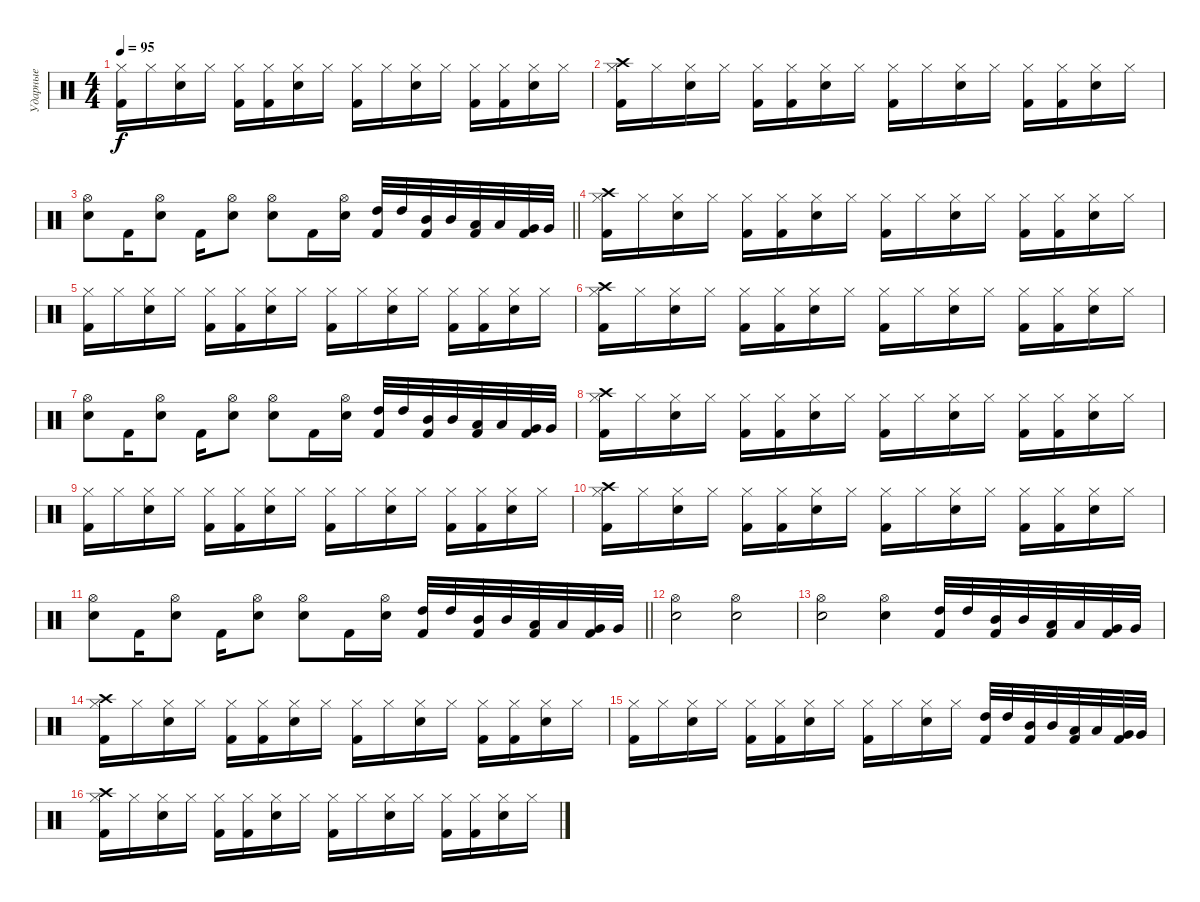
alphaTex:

\track ("Ударные" "Ударные") {instrument percussion}
\staff {score}
\articulation defaults
\ts (4 4)
\tempo 95
\clef neutral
\ks c
("Kick (hit) 2" "Hi-Hat (closed)").16{dy f} "Hi-Hat (closed)".16 ("Snare (hit) 2" "Hi-Hat (closed)").16 "Hi-Hat (closed)".16 ("Kick (hit) 2" "Hi-Hat (closed)").16 ("Kick (hit) 2" "Hi-Hat (closed)").16 ("Snare (hit) 2" "Hi-Hat (closed)").16 "Hi-Hat (closed)".16 ("Kick (hit) 2" "Hi-Hat (closed)").16 "Hi-Hat (closed)".16 ("Snare (hit) 2" "Hi-Hat (closed)").16 "Hi-Hat (closed)".16 ("Kick (hit) 2" "Hi-Hat (closed)").16 ("Kick (hit) 2" "Hi-Hat (closed)").16 ("Snare (hit) 2" "Hi-Hat (closed)").16 "Hi-Hat (closed)".16 |
("Crash high (hit)" "Kick (hit) 2" "Hi-Hat (closed)").16 "Hi-Hat (closed)".16 ("Snare (hit) 2" "Hi-Hat (closed)").16 "Hi-Hat (closed)".16 ("Kick (hit) 2" "Hi-Hat (closed)").16 ("Kick (hit) 2" "Hi-Hat (closed)").16 ("Snare (hit) 2" "Hi-Hat (closed)").16 "Hi-Hat (closed)".16 ("Kick (hit) 2" "Hi-Hat (closed)").16 "Hi-Hat (closed)".16 ("Snare (hit) 2" "Hi-Hat (closed)").16 "Hi-Hat (closed)".16 ("Kick (hit) 2" "Hi-Hat (closed)").16 ("Kick (hit) 2" "Hi-Hat (closed)").16 ("Snare (hit) 2" "Hi-Hat (closed)").16 "Hi-Hat (closed)".16 |
\barLineRight lightlight
("Hi-Hat (open)" "Snare (hit) 2").8 "Kick (hit) 2".16 ("Hi-Hat (open)" "Snare (hit) 2").8 "Kick (hit) 2".16 ("Hi-Hat (open)" "Snare (hit) 2").8 ("Hi-Hat (open)" "Snare (hit) 2").8 "Kick (hit) 2".16 ("Hi-Hat (open)" "Snare (hit) 2").16 ("Kick (hit) 2" "High Tom (hit)").32 "High Tom (hit)".32 ("Kick (hit) 2" "Mid Tom (hit)").32 "Mid Tom (hit)".32 ("Kick (hit) 2" "Low Tom (hit)").32 "Low Tom (hit)".32 ("Kick (hit) 2" "Very Low Tom (hit)").32 "Very Low Tom (hit)".32 |
("Crash high (hit)" "Kick (hit) 2" "Hi-Hat (closed)").16 "Hi-Hat (closed)".16 ("Snare (hit) 2" "Hi-Hat (closed)").16 "Hi-Hat (closed)".16 ("Kick (hit) 2" "Hi-Hat (closed)").16 ("Kick (hit) 2" "Hi-Hat (closed)").16 ("Snare (hit) 2" "Hi-Hat (closed)").16 "Hi-Hat (closed)".16 ("Kick (hit) 2" "Hi-Hat (closed)").16 "Hi-Hat (closed)".16 ("Snare (hit) 2" "Hi-Hat (closed)").16 "Hi-Hat (closed)".16 ("Kick (hit) 2" "Hi-Hat (closed)").16 ("Kick (hit) 2" "Hi-Hat (closed)").16 ("Snare (hit) 2" "Hi-Hat (closed)").16 "Hi-Hat (closed)".16 |
("Kick (hit) 2" "Hi-Hat (closed)").16 "Hi-Hat (closed)".16 ("Snare (hit) 2" "Hi-Hat (closed)").16 "Hi-Hat (closed)".16 ("Kick (hit) 2" "Hi-Hat (closed)").16 ("Kick (hit) 2" "Hi-Hat (closed)").16 ("Snare (hit) 2" "Hi-Hat (closed)").16 "Hi-Hat (closed)".16 ("Kick (hit) 2" "Hi-Hat (closed)").16 "Hi-Hat (closed)".16 ("Snare (hit) 2" "Hi-Hat (closed)").16 "Hi-Hat (closed)".16 ("Kick (hit) 2" "Hi-Hat (closed)").16 ("Kick (hit) 2" "Hi-Hat (closed)").16 ("Snare (hit) 2" "Hi-Hat (closed)").16 "Hi-Hat (closed)".16 |
("Crash high (hit)" "Kick (hit) 2" "Hi-Hat (closed)").16 "Hi-Hat (closed)".16 ("Snare (hit) 2" "Hi-Hat (closed)").16 "Hi-Hat (closed)".16 ("Kick (hit) 2" "Hi-Hat (closed)").16 ("Kick (hit) 2" "Hi-Hat (closed)").16 ("Snare (hit) 2" "Hi-Hat (closed)").16 "Hi-Hat (closed)".16 ("Kick (hit) 2" "Hi-Hat (closed)").16 "Hi-Hat (closed)".16 ("Snare (hit) 2" "Hi-Hat (closed)").16 "Hi-Hat (closed)".16 ("Kick (hit) 2" "Hi-Hat (closed)").16 ("Kick (hit) 2" "Hi-Hat (closed)").16 ("Snare (hit) 2" "Hi-Hat (closed)").16 "Hi-Hat (closed)".16 |
("Hi-Hat (open)" "Snare (hit) 2").8 "Kick (hit) 2".16 ("Hi-Hat (open)" "Snare (hit) 2").8 "Kick (hit) 2".16 ("Hi-Hat (open)" "Snare (hit) 2").8 ("Hi-Hat (open)" "Snare (hit) 2").8 "Kick (hit) 2".16 ("Hi-Hat (open)" "Snare (hit) 2").16 ("Kick (hit) 2" "High Tom (hit)").32 "High Tom (hit)".32 ("Kick (hit) 2" "Mid Tom (hit)").32 "Mid Tom (hit)".32 ("Kick (hit) 2" "Low Tom (hit)").32 "Low Tom (hit)".32 ("Kick (hit) 2" "Very Low Tom (hit)").32 "Very Low Tom (hit)".32 |
("Crash high (hit)" "Kick (hit) 2" "Hi-Hat (closed)").16 "Hi-Hat (closed)".16 ("Snare (hit) 2" "Hi-Hat (closed)").16 "Hi-Hat (closed)".16 ("Kick (hit) 2" "Hi-Hat (closed)").16 ("Kick (hit) 2" "Hi-Hat (closed)").16 ("Snare (hit) 2" "Hi-Hat (closed)").16 "Hi-Hat (closed)".16 ("Kick (hit) 2" "Hi-Hat (closed)").16 "Hi-Hat (closed)".16 ("Snare (hit) 2" "Hi-Hat (closed)").16 "Hi-Hat (closed)".16 ("Kick (hit) 2" "Hi-Hat (closed)").16 ("Kick (hit) 2" "Hi-Hat (closed)").16 ("Snare (hit) 2" "Hi-Hat (closed)").16 "Hi-Hat (closed)".16 |
("Kick (hit) 2" "Hi-Hat (closed)").16 "Hi-Hat (closed)".16 ("Snare (hit) 2" "Hi-Hat (closed)").16 "Hi-Hat (closed)".16 ("Kick (hit) 2" "Hi-Hat (closed)").16 ("Kick (hit) 2" "Hi-Hat (closed)").16 ("Snare (hit) 2" "Hi-Hat (closed)").16 "Hi-Hat (closed)".16 ("Kick (hit) 2" "Hi-Hat (closed)").16 "Hi-Hat (closed)".16 ("Snare (hit) 2" "Hi-Hat (closed)").16 "Hi-Hat (closed)".16 ("Kick (hit) 2" "Hi-Hat (closed)").16 ("Kick (hit) 2" "Hi-Hat (closed)").16 ("Snare (hit) 2" "Hi-Hat (closed)").16 "Hi-Hat (closed)".16 |
("Crash high (hit)" "Kick (hit) 2" "Hi-Hat (closed)").16 "Hi-Hat (closed)".16 ("Snare (hit) 2" "Hi-Hat (closed)").16 "Hi-Hat (closed)".16 ("Kick (hit) 2" "Hi-Hat (closed)").16 ("Kick (hit) 2" "Hi-Hat (closed)").16 ("Snare (hit) 2" "Hi-Hat (closed)").16 "Hi-Hat (closed)".16 ("Kick (hit) 2" "Hi-Hat (closed)").16 "Hi-Hat (closed)".16 ("Snare (hit) 2" "Hi-Hat (closed)").16 "Hi-Hat (closed)".16 ("Kick (hit) 2" "Hi-Hat (closed)").16 ("Kick (hit) 2" "Hi-Hat (closed)").16 ("Snare (hit) 2" "Hi-Hat (closed)").16 "Hi-Hat (closed)".16 |
\barLineRight lightlight
("Hi-Hat (open)" "Snare (hit) 2").8 "Kick (hit) 2".16 ("Hi-Hat (open)" "Snare (hit) 2").8 "Kick (hit) 2".16 ("Hi-Hat (open)" "Snare (hit) 2").8 ("Hi-Hat (open)" "Snare (hit) 2").8 "Kick (hit) 2".16 ("Hi-Hat (open)" "Snare (hit) 2").16 ("Kick (hit) 2" "High Tom (hit)").32 "High Tom (hit)".32 ("Kick (hit) 2" "Mid Tom (hit)").32 "Mid Tom (hit)".32 ("Kick (hit) 2" "Low Tom (hit)").32 "Low Tom (hit)".32 ("Kick (hit) 2" "Very Low Tom (hit)").32 "Very Low Tom (hit)".32 |
("Hi-Hat (open)" "Snare (hit) 2").2 ("Hi-Hat (open)" "Snare (hit) 2").2 |
("Hi-Hat (open)" "Snare (hit) 2").2 ("Hi-Hat (open)" "Snare (hit) 2").4 ("Kick (hit) 2" "High Tom (hit)").32 "High Tom (hit)".32 ("Kick (hit) 2" "Mid Tom (hit)").32 "Mid Tom (hit)".32 ("Kick (hit) 2" "Low Tom (hit)").32 "Low Tom (hit)".32 ("Kick (hit) 2" "Very Low Tom (hit)").32 "Very Low Tom (hit)".32 |
("Crash high (hit)" "Kick (hit) 2" "Hi-Hat (closed)").16 "Hi-Hat (closed)".16 ("Snare (hit) 2" "Hi-Hat (closed)").16 "Hi-Hat (closed)".16 ("Kick (hit) 2" "Hi-Hat (closed)").16 ("Kick (hit) 2" "Hi-Hat (closed)").16 ("Snare (hit) 2" "Hi-Hat (closed)").16 "Hi-Hat (closed)".16 ("Kick (hit) 2" "Hi-Hat (closed)").16 "Hi-Hat (closed)".16 ("Snare (hit) 2" "Hi-Hat (closed)").16 "Hi-Hat (closed)".16 ("Kick (hit) 2" "Hi-Hat (closed)").16 ("Kick (hit) 2" "Hi-Hat (closed)").16 ("Snare (hit) 2" "Hi-Hat (closed)").16 "Hi-Hat (closed)".16 |
("Kick (hit) 2" "Hi-Hat (closed)").16 "Hi-Hat (closed)".16 ("Snare (hit) 2" "Hi-Hat (closed)").16 "Hi-Hat (closed)".16 ("Kick (hit) 2" "Hi-Hat (closed)").16 ("Kick (hit) 2" "Hi-Hat (closed)").16 ("Snare (hit) 2" "Hi-Hat (closed)").16 "Hi-Hat (closed)".16 ("Kick (hit) 2" "Hi-Hat (closed)").16 "Hi-Hat (closed)".16 ("Snare (hit) 2" "Hi-Hat (closed)").16 "Hi-Hat (closed)".16 ("Kick (hit) 2" "High Tom (hit)").32 "High Tom (hit)".32 ("Kick (hit) 2" "Mid Tom (hit)").32 "Mid Tom (hit)".32 ("Kick (hit) 2" "Low Tom (hit)").32 "Low Tom (hit)".32 ("Kick (hit) 2" "Very Low Tom (hit)").32 "Very Low Tom (hit)".32 |
("Crash high (hit)" "Kick (hit) 2" "Hi-Hat (closed)").16 "Hi-Hat (closed)".16 ("Snare (hit) 2" "Hi-Hat (closed)").16 "Hi-Hat (closed)".16 ("Kick (hit) 2" "Hi-Hat (closed)").16 ("Kick (hit) 2" "Hi-Hat (closed)").16 ("Snare (hit) 2" "Hi-Hat (closed)").16 "Hi-Hat (closed)".16 ("Kick (hit) 2" "Hi-Hat (closed)").16 "Hi-Hat (closed)".16 ("Snare (hit) 2" "Hi-Hat (closed)").16 "Hi-Hat (closed)".16 ("Kick (hit) 2" "Hi-Hat (closed)").16 ("Kick (hit) 2" "Hi-Hat (closed)").16 ("Snare (hit) 2" "Hi-Hat (closed)").16 "Hi-Hat (closed)".16
